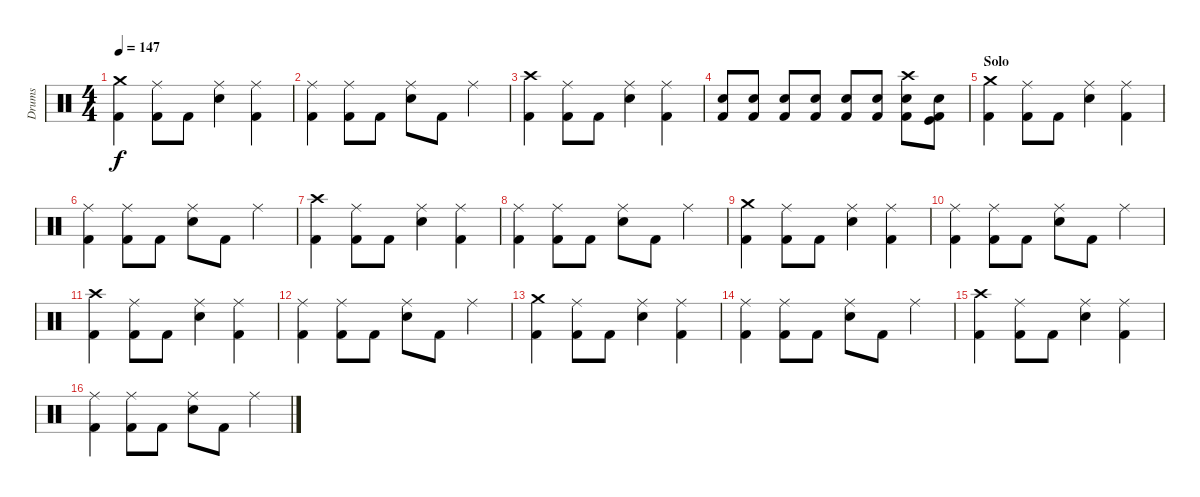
\track ("Drums" "Drums") {instrument percussion}
\staff {score}
\articulation defaults
\ts (4 4)
\tempo 147
\clef neutral
\ks c
("Crash medium (hit)" "Kick (hit) 2").4{dy f} ("Ride (middle)" "Kick (hit) 2").8 "Kick (hit) 2".8 ("Ride (middle)" "Snare (hit) 2").4 ("Ride (middle)" "Kick (hit) 2").4 |
("Ride (middle)" "Kick (hit) 2").4 ("Ride (middle)" "Kick (hit) 2").8 "Kick (hit) 2".8 ("Ride (middle)" "Snare (hit) 2").8 "Kick (hit) 2".8 "Ride (middle)".4 |
("Crash high (hit)" "Kick (hit) 2").4 ("Ride (middle)" "Kick (hit) 2").8 "Kick (hit) 2".8 ("Ride (middle)" "Snare (hit) 2").4 ("Ride (middle)" "Kick (hit) 2").4 |
("Kick (hit) 2" "Snare (hit) 2").8 ("Kick (hit) 2" "Snare (hit) 2").8 ("Kick (hit) 2" "Snare (hit) 2").8 ("Kick (hit) 2" "Snare (hit) 2").8 ("Kick (hit) 2" "Snare (hit) 2").8 ("Kick (hit) 2" "Snare (hit) 2").8 ("Crash high (hit)" "Kick (hit) 2" "Snare (hit) 2").8 ("Kick (hit)" "Kick (hit) 2" "Snare (hit) 2").8 |
\section ("" "Solo")
("Crash medium (hit)" "Kick (hit) 2").4 ("Ride (middle)" "Kick (hit) 2").8 "Kick (hit) 2".8 ("Ride (middle)" "Snare (hit) 2").4 ("Ride (middle)" "Kick (hit) 2").4 |
("Ride (middle)" "Kick (hit) 2").4 ("Ride (middle)" "Kick (hit) 2").8 "Kick (hit) 2".8 ("Ride (middle)" "Snare (hit) 2").8 "Kick (hit) 2".8 "Ride (middle)".4 |
("Crash high (hit)" "Kick (hit) 2").4 ("Ride (middle)" "Kick (hit) 2").8 "Kick (hit) 2".8 ("Ride (middle)" "Snare (hit) 2").4 ("Ride (middle)" "Kick (hit) 2").4 |
("Ride (middle)" "Kick (hit) 2").4 ("Ride (middle)" "Kick (hit) 2").8 "Kick (hit) 2".8 ("Ride (middle)" "Snare (hit) 2").8 "Kick (hit) 2".8 "Ride (middle)".4 |
("Crash medium (hit)" "Kick (hit) 2").4 ("Ride (middle)" "Kick (hit) 2").8 "Kick (hit) 2".8 ("Ride (middle)" "Snare (hit) 2").4 ("Ride (middle)" "Kick (hit) 2").4 |
("Ride (middle)" "Kick (hit) 2").4 ("Ride (middle)" "Kick (hit) 2").8 "Kick (hit) 2".8 ("Ride (middle)" "Snare (hit) 2").8 "Kick (hit) 2".8 "Ride (middle)".4 |
("Crash high (hit)" "Kick (hit) 2").4 ("Ride (middle)" "Kick (hit) 2").8 "Kick (hit) 2".8 ("Ride (middle)" "Snare (hit) 2").4 ("Ride (middle)" "Kick (hit) 2").4 |
("Ride (middle)" "Kick (hit) 2").4 ("Ride (middle)" "Kick (hit) 2").8 "Kick (hit) 2".8 ("Ride (middle)" "Snare (hit) 2").8 "Kick (hit) 2".8 "Ride (middle)".4 |
("Crash medium (hit)" "Kick (hit) 2").4 ("Ride (middle)" "Kick (hit) 2").8 "Kick (hit) 2".8 ("Ride (middle)" "Snare (hit) 2").4 ("Ride (middle)" "Kick (hit) 2").4 |
("Ride (middle)" "Kick (hit) 2").4 ("Ride (middle)" "Kick (hit) 2").8 "Kick (hit) 2".8 ("Ride (middle)" "Snare (hit) 2").8 "Kick (hit) 2".8 "Ride (middle)".4 |
("Crash high (hit)" "Kick (hit) 2").4 ("Ride (middle)" "Kick (hit) 2").8 "Kick (hit) 2".8 ("Ride (middle)" "Snare (hit) 2").4 ("Ride (middle)" "Kick (hit) 2").4 |
("Ride (middle)" "Kick (hit) 2").4 ("Ride (middle)" "Kick (hit) 2").8 "Kick (hit) 2".8 ("Ride (middle)" "Snare (hit) 2").8 "Kick (hit) 2".8 "Ride (middle)".4
